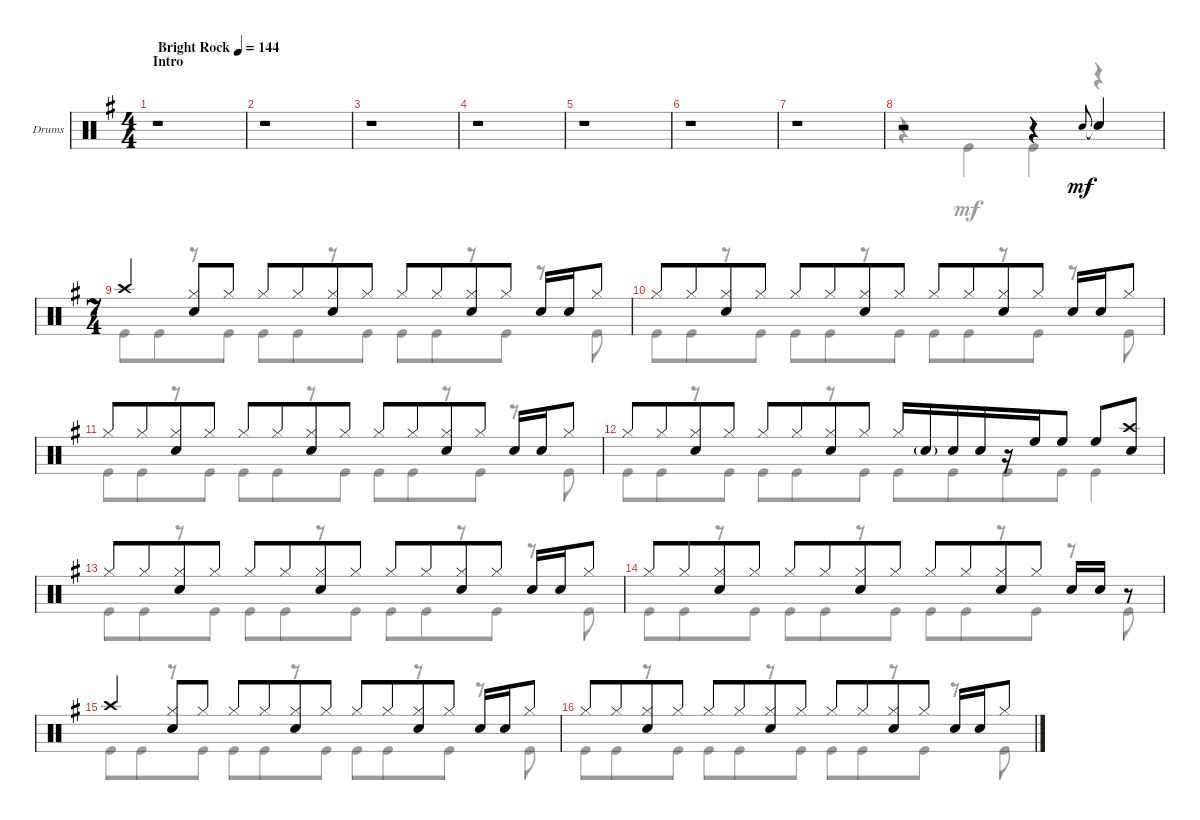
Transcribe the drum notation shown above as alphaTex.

\bracketExtendMode groupsimilarinstruments
\firstSystemTrackNameOrientation horizontal
\otherSystemsTrackNameOrientation horizontal
\track ("Drumkit" "Drums") {instrument percussion}
\staff {score}
\articulation defaults
\voice
\ts (4 4)
\beaming (8 2 2 2 2)
\section ("" "Intro")
\tempo (144 "Bright Rock")
\clef neutral
\scale
0.502183
\ks g
r.1{dy mf} |
\scale
0.248908 r.1 |
\scale
0.248908 r.1 |
\scale
0.333333 r.1 |
\scale
0.333333 r.1 |
\scale
0.333333 r.1 |
\scale
0.248908 r.1 |
\scale
0.248908 r.2 r.4 "Snare (hit) 2".8{gr onbeat} "Snare (hit) 2"{t}.4 |
\ts (7 4)
\beaming (8 4 4 4 2)
\scale
0.502183 "Crash high (hit)".4 ("Hi-Hat (closed)" "Snare (hit) 2").8 "Hi-Hat (closed)".8 "Hi-Hat (closed)".8 "Hi-Hat (closed)".8 ("Hi-Hat (closed)" "Snare (hit) 2").8 "Hi-Hat (closed)".8 "Hi-Hat (closed)".8 "Hi-Hat (closed)".8 ("Hi-Hat (closed)" "Snare (hit) 2").8 "Hi-Hat (closed)".8 "Snare (hit) 2".16 "Snare (hit) 2".16 "Hi-Hat (closed)".8 |
\scale
0.333333 "Hi-Hat (closed)".8 "Hi-Hat (closed)".8 ("Hi-Hat (closed)" "Snare (hit) 2").8 "Hi-Hat (closed)".8 "Hi-Hat (closed)".8 "Hi-Hat (closed)".8 ("Hi-Hat (closed)" "Snare (hit) 2").8 "Hi-Hat (closed)".8 "Hi-Hat (closed)".8 "Hi-Hat (closed)".8 ("Hi-Hat (closed)" "Snare (hit) 2").8 "Hi-Hat (closed)".8 "Snare (hit) 2".16 "Snare (hit) 2".16 "Hi-Hat (closed)".8 |
\scale
0.333333 "Hi-Hat (closed)".8 "Hi-Hat (closed)".8 ("Hi-Hat (closed)" "Snare (hit) 2").8 "Hi-Hat (closed)".8 "Hi-Hat (closed)".8 "Hi-Hat (closed)".8 ("Hi-Hat (closed)" "Snare (hit) 2").8 "Hi-Hat (closed)".8 "Hi-Hat (closed)".8 "Hi-Hat (closed)".8 ("Hi-Hat (closed)" "Snare (hit) 2").8 "Hi-Hat (closed)".8 "Snare (hit) 2".16 "Snare (hit) 2".16 "Hi-Hat (closed)".8 |
\scale
0.333333 "Hi-Hat (closed)".8 "Hi-Hat (closed)".8 ("Hi-Hat (closed)" "Snare (hit) 2").8 "Hi-Hat (closed)".8 "Hi-Hat (closed)".8 "Hi-Hat (closed)".8 ("Hi-Hat (closed)" "Snare (hit) 2").8 "Hi-Hat (closed)".8 "Hi-Hat (closed)".16 "Snare (hit) 2"{g}.16 "Snare (hit) 2".16 "Snare (hit) 2".16 r.16 "High Floor Tom (hit)".16 "High Floor Tom (hit)".8 "High Floor Tom (hit)".8 ("Snare (hit) 2" "Crash high (hit)").8 |
\scale
0.333333 "Hi-Hat (closed)".8 "Hi-Hat (closed)".8 ("Hi-Hat (closed)" "Snare (hit) 2").8 "Hi-Hat (closed)".8 "Hi-Hat (closed)".8 "Hi-Hat (closed)".8 ("Hi-Hat (closed)" "Snare (hit) 2").8 "Hi-Hat (closed)".8 "Hi-Hat (closed)".8 "Hi-Hat (closed)".8 ("Hi-Hat (closed)" "Snare (hit) 2").8 "Hi-Hat (closed)".8 "Snare (hit) 2".16 "Snare (hit) 2".16 "Hi-Hat (closed)".8 |
\scale
0.333333 "Hi-Hat (closed)".8 "Hi-Hat (closed)".8 ("Hi-Hat (closed)" "Snare (hit) 2").8 "Hi-Hat (closed)".8 "Hi-Hat (closed)".8 "Hi-Hat (closed)".8 ("Hi-Hat (closed)" "Snare (hit) 2").8 "Hi-Hat (closed)".8 "Hi-Hat (closed)".8 "Hi-Hat (closed)".8 ("Hi-Hat (closed)" "Snare (hit) 2").8 "Hi-Hat (closed)".8 "Snare (hit) 2".16 "Snare (hit) 2".16 r.8 |
\scale
0.333333 "Crash high (hit)".4 ("Hi-Hat (closed)" "Snare (hit) 2").8 "Hi-Hat (closed)".8 "Hi-Hat (closed)".8 "Hi-Hat (closed)".8 ("Hi-Hat (closed)" "Snare (hit) 2").8 "Hi-Hat (closed)".8 "Hi-Hat (closed)".8 "Hi-Hat (closed)".8 ("Hi-Hat (closed)" "Snare (hit) 2").8 "Hi-Hat (closed)".8 "Snare (hit) 2".16 "Snare (hit) 2".16 "Hi-Hat (closed)".8 |
\scale
0.248908 "Hi-Hat (closed)".8 "Hi-Hat (closed)".8 ("Hi-Hat (closed)" "Snare (hit) 2").8 "Hi-Hat (closed)".8 "Hi-Hat (closed)".8 "Hi-Hat (closed)".8 ("Hi-Hat (closed)" "Snare (hit) 2").8 "Hi-Hat (closed)".8 "Hi-Hat (closed)".8 "Hi-Hat (closed)".8 ("Hi-Hat (closed)" "Snare (hit) 2").8 "Hi-Hat (closed)".8 "Snare (hit) 2".16 "Snare (hit) 2".16 "Hi-Hat (closed)".8
\voice
\clef neutral
\ottava regular
\simile none
\scale
0.502183
\ks g
|
\scale
0.248908 |
\scale
0.248908 |
\scale
0.333333 |
\scale
0.333333 |
\scale
0.333333 |
\scale
0.248908 |
\scale
0.248908 r.4 "Kick (hit)".4 "Kick (hit)".4 r.4 |
\scale
0.502183 "Kick (hit)".8 "Kick (hit)".8 r.8 "Kick (hit)".8 "Kick (hit)".8 "Kick (hit)".8 r.8 "Kick (hit)".8 "Kick (hit)".8 "Kick (hit)".8 r.8 "Kick (hit)".8 r.8 "Kick (hit)".8 |
\scale
0.333333 "Kick (hit)".8 "Kick (hit)".8 r.8 "Kick (hit)".8 "Kick (hit)".8 "Kick (hit)".8 r.8 "Kick (hit)".8 "Kick (hit)".8 "Kick (hit)".8 r.8 "Kick (hit)".8 r.8 "Kick (hit)".8 |
\scale
0.333333 "Kick (hit)".8 "Kick (hit)".8 r.8 "Kick (hit)".8 "Kick (hit)".8 "Kick (hit)".8 r.8 "Kick (hit)".8 "Kick (hit)".8 "Kick (hit)".8 r.8 "Kick (hit)".8 r.8 "Kick (hit)".8 |
\scale
0.333333 "Kick (hit)".8 "Kick (hit)".8 r.8 "Kick (hit)".8 "Kick (hit)".8 "Kick (hit)".8 r.8 "Kick (hit)".8 "Kick (hit)".8 "Kick (hit)".8 "Kick (hit)".8 "Kick (hit)".8 "Kick (hit)".4 |
\scale
0.333333 "Kick (hit)".8 "Kick (hit)".8 r.8 "Kick (hit)".8 "Kick (hit)".8 "Kick (hit)".8 r.8 "Kick (hit)".8 "Kick (hit)".8 "Kick (hit)".8 r.8 "Kick (hit)".8 r.8 "Kick (hit)".8 |
\scale
0.333333 "Kick (hit)".8 "Kick (hit)".8 r.8 "Kick (hit)".8 "Kick (hit)".8 "Kick (hit)".8 r.8 "Kick (hit)".8 "Kick (hit)".8 "Kick (hit)".8 r.8 "Kick (hit)".8 r.8 "Kick (hit)".8 |
\scale
0.333333 "Kick (hit)".8 "Kick (hit)".8 r.8 "Kick (hit)".8 "Kick (hit)".8 "Kick (hit)".8 r.8 "Kick (hit)".8 "Kick (hit)".8 "Kick (hit)".8 r.8 "Kick (hit)".8 r.8 "Kick (hit)".8 |
\scale
0.248908 "Kick (hit)".8 "Kick (hit)".8 r.8 "Kick (hit)".8 "Kick (hit)".8 "Kick (hit)".8 r.8 "Kick (hit)".8 "Kick (hit)".8 "Kick (hit)".8 r.8 "Kick (hit)".8 r.8 "Kick (hit)".8
